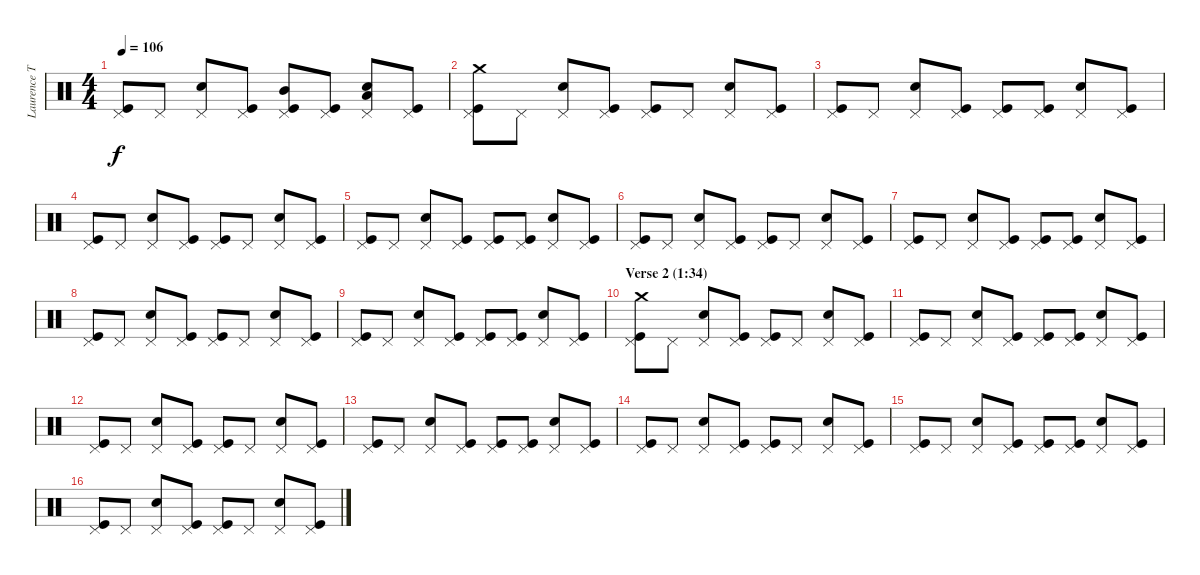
\track ("Laurence Tolhurst (drums)" "Laurence T") {instrument percussion}
\staff {score}
\articulation defaults
\ts (4 4)
\tempo 106
\clef neutral
\ks c
("Pedal Hi-Hat (hit)" "Kick (hit)").8{dy f} "Pedal Hi-Hat (hit)".8 ("Pedal Hi-Hat (hit)" "Snare (hit) 2").8 ("Pedal Hi-Hat (hit)" "Kick (hit)").8 ("Mid Tom (hit)" "Pedal Hi-Hat (hit)" "Kick (hit)").8 ("Pedal Hi-Hat (hit)" "Kick (hit)").8 ("Low Tom (hit)" "Pedal Hi-Hat (hit)" "Snare (hit) 2").8 ("Pedal Hi-Hat (hit)" "Kick (hit)").8 |
("Crash medium (hit)" "Pedal Hi-Hat (hit)" "Kick (hit)").8 "Pedal Hi-Hat (hit)".8 ("Pedal Hi-Hat (hit)" "Snare (hit) 2").8 ("Pedal Hi-Hat (hit)" "Kick (hit)").8 ("Pedal Hi-Hat (hit)" "Kick (hit)").8 "Pedal Hi-Hat (hit)".8 ("Pedal Hi-Hat (hit)" "Snare (hit) 2").8 ("Pedal Hi-Hat (hit)" "Kick (hit)").8 |
("Pedal Hi-Hat (hit)" "Kick (hit)").8 "Pedal Hi-Hat (hit)".8 ("Pedal Hi-Hat (hit)" "Snare (hit) 2").8 ("Pedal Hi-Hat (hit)" "Kick (hit)").8 ("Pedal Hi-Hat (hit)" "Kick (hit)").8 ("Pedal Hi-Hat (hit)" "Kick (hit)").8 ("Pedal Hi-Hat (hit)" "Snare (hit) 2").8 ("Pedal Hi-Hat (hit)" "Kick (hit)").8 |
("Pedal Hi-Hat (hit)" "Kick (hit)").8 "Pedal Hi-Hat (hit)".8 ("Pedal Hi-Hat (hit)" "Snare (hit) 2").8 ("Pedal Hi-Hat (hit)" "Kick (hit)").8 ("Pedal Hi-Hat (hit)" "Kick (hit)").8 "Pedal Hi-Hat (hit)".8 ("Pedal Hi-Hat (hit)" "Snare (hit) 2").8 ("Pedal Hi-Hat (hit)" "Kick (hit)").8 |
("Pedal Hi-Hat (hit)" "Kick (hit)").8 "Pedal Hi-Hat (hit)".8 ("Pedal Hi-Hat (hit)" "Snare (hit) 2").8 ("Pedal Hi-Hat (hit)" "Kick (hit)").8 ("Pedal Hi-Hat (hit)" "Kick (hit)").8 ("Pedal Hi-Hat (hit)" "Kick (hit)").8 ("Pedal Hi-Hat (hit)" "Snare (hit) 2").8 ("Pedal Hi-Hat (hit)" "Kick (hit)").8 |
("Pedal Hi-Hat (hit)" "Kick (hit)").8 "Pedal Hi-Hat (hit)".8 ("Pedal Hi-Hat (hit)" "Snare (hit) 2").8 ("Pedal Hi-Hat (hit)" "Kick (hit)").8 ("Pedal Hi-Hat (hit)" "Kick (hit)").8 "Pedal Hi-Hat (hit)".8 ("Pedal Hi-Hat (hit)" "Snare (hit) 2").8 ("Pedal Hi-Hat (hit)" "Kick (hit)").8 |
("Pedal Hi-Hat (hit)" "Kick (hit)").8 "Pedal Hi-Hat (hit)".8 ("Pedal Hi-Hat (hit)" "Snare (hit) 2").8 ("Pedal Hi-Hat (hit)" "Kick (hit)").8 ("Pedal Hi-Hat (hit)" "Kick (hit)").8 ("Pedal Hi-Hat (hit)" "Kick (hit)").8 ("Pedal Hi-Hat (hit)" "Snare (hit) 2").8 ("Pedal Hi-Hat (hit)" "Kick (hit)").8 |
("Pedal Hi-Hat (hit)" "Kick (hit)").8 "Pedal Hi-Hat (hit)".8 ("Pedal Hi-Hat (hit)" "Snare (hit) 2").8 ("Pedal Hi-Hat (hit)" "Kick (hit)").8 ("Pedal Hi-Hat (hit)" "Kick (hit)").8 "Pedal Hi-Hat (hit)".8 ("Pedal Hi-Hat (hit)" "Snare (hit) 2").8 ("Pedal Hi-Hat (hit)" "Kick (hit)").8 |
("Pedal Hi-Hat (hit)" "Kick (hit)").8 "Pedal Hi-Hat (hit)".8 ("Pedal Hi-Hat (hit)" "Snare (hit) 2").8 ("Pedal Hi-Hat (hit)" "Kick (hit)").8 ("Pedal Hi-Hat (hit)" "Kick (hit)").8 ("Pedal Hi-Hat (hit)" "Kick (hit)").8 ("Pedal Hi-Hat (hit)" "Snare (hit) 2").8 ("Pedal Hi-Hat (hit)" "Kick (hit)").8 |
\section ("" "Verse 2 (1:34)")
("Crash medium (hit)" "Pedal Hi-Hat (hit)" "Kick (hit)").8 "Pedal Hi-Hat (hit)".8 ("Pedal Hi-Hat (hit)" "Snare (hit) 2").8 ("Pedal Hi-Hat (hit)" "Kick (hit)").8 ("Pedal Hi-Hat (hit)" "Kick (hit)").8 "Pedal Hi-Hat (hit)".8 ("Pedal Hi-Hat (hit)" "Snare (hit) 2").8 ("Pedal Hi-Hat (hit)" "Kick (hit)").8 |
("Pedal Hi-Hat (hit)" "Kick (hit)").8 "Pedal Hi-Hat (hit)".8 ("Pedal Hi-Hat (hit)" "Snare (hit) 2").8 ("Pedal Hi-Hat (hit)" "Kick (hit)").8 ("Pedal Hi-Hat (hit)" "Kick (hit)").8 ("Pedal Hi-Hat (hit)" "Kick (hit)").8 ("Pedal Hi-Hat (hit)" "Snare (hit) 2").8 ("Pedal Hi-Hat (hit)" "Kick (hit)").8 |
("Pedal Hi-Hat (hit)" "Kick (hit)").8 "Pedal Hi-Hat (hit)".8 ("Pedal Hi-Hat (hit)" "Snare (hit) 2").8 ("Pedal Hi-Hat (hit)" "Kick (hit)").8 ("Pedal Hi-Hat (hit)" "Kick (hit)").8 "Pedal Hi-Hat (hit)".8 ("Pedal Hi-Hat (hit)" "Snare (hit) 2").8 ("Pedal Hi-Hat (hit)" "Kick (hit)").8 |
("Pedal Hi-Hat (hit)" "Kick (hit)").8 "Pedal Hi-Hat (hit)".8 ("Pedal Hi-Hat (hit)" "Snare (hit) 2").8 ("Pedal Hi-Hat (hit)" "Kick (hit)").8 ("Pedal Hi-Hat (hit)" "Kick (hit)").8 ("Pedal Hi-Hat (hit)" "Kick (hit)").8 ("Pedal Hi-Hat (hit)" "Snare (hit) 2").8 ("Pedal Hi-Hat (hit)" "Kick (hit)").8 |
("Pedal Hi-Hat (hit)" "Kick (hit)").8 "Pedal Hi-Hat (hit)".8 ("Pedal Hi-Hat (hit)" "Snare (hit) 2").8 ("Pedal Hi-Hat (hit)" "Kick (hit)").8 ("Pedal Hi-Hat (hit)" "Kick (hit)").8 "Pedal Hi-Hat (hit)".8 ("Pedal Hi-Hat (hit)" "Snare (hit) 2").8 ("Pedal Hi-Hat (hit)" "Kick (hit)").8 |
("Pedal Hi-Hat (hit)" "Kick (hit)").8 "Pedal Hi-Hat (hit)".8 ("Pedal Hi-Hat (hit)" "Snare (hit) 2").8 ("Pedal Hi-Hat (hit)" "Kick (hit)").8 ("Pedal Hi-Hat (hit)" "Kick (hit)").8 ("Pedal Hi-Hat (hit)" "Kick (hit)").8 ("Pedal Hi-Hat (hit)" "Snare (hit) 2").8 ("Pedal Hi-Hat (hit)" "Kick (hit)").8 |
("Pedal Hi-Hat (hit)" "Kick (hit)").8 "Pedal Hi-Hat (hit)".8 ("Pedal Hi-Hat (hit)" "Snare (hit) 2").8 ("Pedal Hi-Hat (hit)" "Kick (hit)").8 ("Pedal Hi-Hat (hit)" "Kick (hit)").8 "Pedal Hi-Hat (hit)".8 ("Pedal Hi-Hat (hit)" "Snare (hit) 2").8 ("Pedal Hi-Hat (hit)" "Kick (hit)").8
